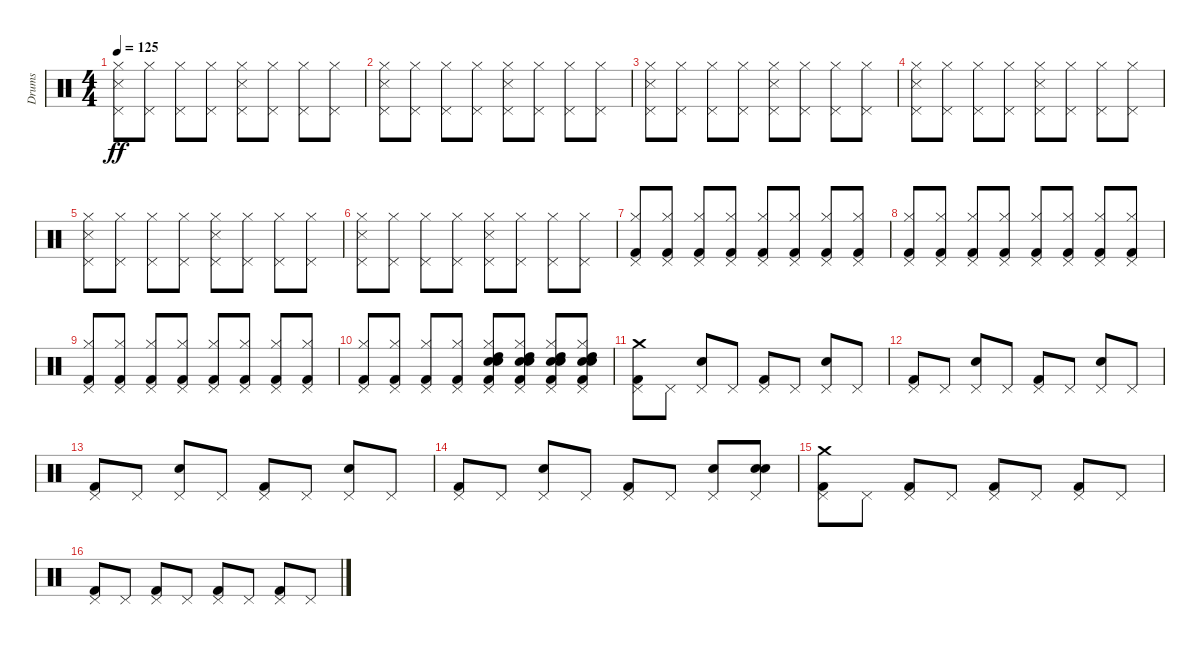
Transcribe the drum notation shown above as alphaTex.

\track ("Drums" "Drums") {instrument percussion}
\staff {score}
\articulation defaults
\ts (4 4)
\tempo 125
\clef neutral
\ks c
("Pedal Hi-Hat (hit)" "Snare (side stick) 3" "Hi-Hat (closed)").8{dy ff} ("Pedal Hi-Hat (hit)" "Hi-Hat (closed)").8 ("Pedal Hi-Hat (hit)" "Hi-Hat (closed)").8 ("Pedal Hi-Hat (hit)" "Hi-Hat (closed)").8 ("Pedal Hi-Hat (hit)" "Snare (side stick) 3" "Hi-Hat (closed)").8 ("Pedal Hi-Hat (hit)" "Hi-Hat (closed)").8 ("Pedal Hi-Hat (hit)" "Hi-Hat (closed)").8 ("Pedal Hi-Hat (hit)" "Hi-Hat (closed)").8 |
("Pedal Hi-Hat (hit)" "Snare (side stick) 3" "Hi-Hat (closed)").8 ("Pedal Hi-Hat (hit)" "Hi-Hat (closed)").8 ("Pedal Hi-Hat (hit)" "Hi-Hat (closed)").8 ("Pedal Hi-Hat (hit)" "Hi-Hat (closed)").8 ("Pedal Hi-Hat (hit)" "Snare (side stick) 3" "Hi-Hat (closed)").8 ("Pedal Hi-Hat (hit)" "Hi-Hat (closed)").8 ("Pedal Hi-Hat (hit)" "Hi-Hat (closed)").8 ("Pedal Hi-Hat (hit)" "Hi-Hat (closed)").8 |
("Pedal Hi-Hat (hit)" "Snare (side stick) 3" "Hi-Hat (closed)").8 ("Pedal Hi-Hat (hit)" "Hi-Hat (closed)").8 ("Pedal Hi-Hat (hit)" "Hi-Hat (closed)").8 ("Pedal Hi-Hat (hit)" "Hi-Hat (closed)").8 ("Pedal Hi-Hat (hit)" "Snare (side stick) 3" "Hi-Hat (closed)").8 ("Pedal Hi-Hat (hit)" "Hi-Hat (closed)").8 ("Pedal Hi-Hat (hit)" "Hi-Hat (closed)").8 ("Pedal Hi-Hat (hit)" "Hi-Hat (closed)").8 |
("Pedal Hi-Hat (hit)" "Snare (side stick) 3" "Hi-Hat (closed)").8 ("Pedal Hi-Hat (hit)" "Hi-Hat (closed)").8 ("Pedal Hi-Hat (hit)" "Hi-Hat (closed)").8 ("Pedal Hi-Hat (hit)" "Hi-Hat (closed)").8 ("Pedal Hi-Hat (hit)" "Snare (side stick) 3" "Hi-Hat (closed)").8 ("Pedal Hi-Hat (hit)" "Hi-Hat (closed)").8 ("Pedal Hi-Hat (hit)" "Hi-Hat (closed)").8 ("Pedal Hi-Hat (hit)" "Hi-Hat (closed)").8 |
("Pedal Hi-Hat (hit)" "Snare (side stick) 3" "Hi-Hat (closed)").8 ("Pedal Hi-Hat (hit)" "Hi-Hat (closed)").8 ("Pedal Hi-Hat (hit)" "Hi-Hat (closed)").8 ("Pedal Hi-Hat (hit)" "Hi-Hat (closed)").8 ("Pedal Hi-Hat (hit)" "Snare (side stick) 3" "Hi-Hat (closed)").8 ("Pedal Hi-Hat (hit)" "Hi-Hat (closed)").8 ("Pedal Hi-Hat (hit)" "Hi-Hat (closed)").8 ("Pedal Hi-Hat (hit)" "Hi-Hat (closed)").8 |
("Pedal Hi-Hat (hit)" "Snare (side stick) 3" "Hi-Hat (closed)").8 ("Pedal Hi-Hat (hit)" "Hi-Hat (closed)").8 ("Pedal Hi-Hat (hit)" "Hi-Hat (closed)").8 ("Pedal Hi-Hat (hit)" "Hi-Hat (closed)").8 ("Pedal Hi-Hat (hit)" "Snare (side stick) 3" "Hi-Hat (closed)").8 ("Pedal Hi-Hat (hit)" "Hi-Hat (closed)").8 ("Pedal Hi-Hat (hit)" "Hi-Hat (closed)").8 ("Pedal Hi-Hat (hit)" "Hi-Hat (closed)").8 |
("Pedal Hi-Hat (hit)" "Kick (hit) 2" "Hi-Hat (closed)").8 ("Pedal Hi-Hat (hit)" "Kick (hit) 2" "Hi-Hat (closed)").8 ("Pedal Hi-Hat (hit)" "Kick (hit) 2" "Hi-Hat (closed)").8 ("Pedal Hi-Hat (hit)" "Kick (hit) 2" "Hi-Hat (closed)").8 ("Pedal Hi-Hat (hit)" "Kick (hit) 2" "Hi-Hat (closed)").8 ("Pedal Hi-Hat (hit)" "Kick (hit) 2" "Hi-Hat (closed)").8 ("Pedal Hi-Hat (hit)" "Kick (hit) 2" "Hi-Hat (closed)").8 ("Pedal Hi-Hat (hit)" "Kick (hit) 2" "Hi-Hat (closed)").8 |
("Pedal Hi-Hat (hit)" "Kick (hit) 2" "Hi-Hat (closed)").8 ("Pedal Hi-Hat (hit)" "Kick (hit) 2" "Hi-Hat (closed)").8 ("Pedal Hi-Hat (hit)" "Kick (hit) 2" "Hi-Hat (closed)").8 ("Pedal Hi-Hat (hit)" "Kick (hit) 2" "Hi-Hat (closed)").8 ("Pedal Hi-Hat (hit)" "Kick (hit) 2" "Hi-Hat (closed)").8 ("Pedal Hi-Hat (hit)" "Kick (hit) 2" "Hi-Hat (closed)").8 ("Pedal Hi-Hat (hit)" "Kick (hit) 2" "Hi-Hat (closed)").8 ("Pedal Hi-Hat (hit)" "Kick (hit) 2" "Hi-Hat (closed)").8 |
("Pedal Hi-Hat (hit)" "Kick (hit) 2" "Hi-Hat (closed)").8 ("Pedal Hi-Hat (hit)" "Kick (hit) 2" "Hi-Hat (closed)").8 ("Pedal Hi-Hat (hit)" "Kick (hit) 2" "Hi-Hat (closed)").8 ("Pedal Hi-Hat (hit)" "Kick (hit) 2" "Hi-Hat (closed)").8 ("Pedal Hi-Hat (hit)" "Kick (hit) 2" "Hi-Hat (closed)").8 ("Pedal Hi-Hat (hit)" "Kick (hit) 2" "Hi-Hat (closed)").8 ("Pedal Hi-Hat (hit)" "Kick (hit) 2" "Hi-Hat (closed)").8 ("Pedal Hi-Hat (hit)" "Kick (hit) 2" "Hi-Hat (closed)").8 |
("Pedal Hi-Hat (hit)" "Kick (hit) 2" "Hi-Hat (closed)").8 ("Pedal Hi-Hat (hit)" "Kick (hit) 2" "Hi-Hat (closed)").8 ("Pedal Hi-Hat (hit)" "Kick (hit) 2" "Hi-Hat (closed)").8 ("Pedal Hi-Hat (hit)" "Kick (hit) 2" "Hi-Hat (closed)").8 ("Pedal Hi-Hat (hit)" "Kick (hit) 2" "Electric Snare (hit)" "High Tom (hit)" "Hi-Hat (closed)" "Electric Snare (hit)").8 ("Pedal Hi-Hat (hit)" "Kick (hit) 2" "Electric Snare (hit)" "High Tom (hit)" "Hi-Hat (closed)" "Electric Snare (hit)").8 ("Pedal Hi-Hat (hit)" "Kick (hit) 2" "Electric Snare (hit)" "High Tom (hit)" "Hi-Hat (closed)" "Electric Snare (hit)").8 ("Pedal Hi-Hat (hit)" "Kick (hit) 2" "Electric Snare (hit)" "High Tom (hit)" "Hi-Hat (closed)" "Electric Snare (hit)").8 |
("Pedal Hi-Hat (hit)" "Kick (hit) 2" "Crash medium (hit)").8 "Pedal Hi-Hat (hit)".8 ("Pedal Hi-Hat (hit)" "Electric Snare (hit)").8 "Pedal Hi-Hat (hit)".8 ("Pedal Hi-Hat (hit)" "Kick (hit) 2").8 "Pedal Hi-Hat (hit)".8 ("Pedal Hi-Hat (hit)" "Electric Snare (hit)").8 "Pedal Hi-Hat (hit)".8 |
("Pedal Hi-Hat (hit)" "Kick (hit) 2").8 "Pedal Hi-Hat (hit)".8 ("Pedal Hi-Hat (hit)" "Electric Snare (hit)").8 "Pedal Hi-Hat (hit)".8 ("Pedal Hi-Hat (hit)" "Kick (hit) 2").8 "Pedal Hi-Hat (hit)".8 ("Pedal Hi-Hat (hit)" "Electric Snare (hit)").8 "Pedal Hi-Hat (hit)".8 |
("Pedal Hi-Hat (hit)" "Kick (hit) 2").8 "Pedal Hi-Hat (hit)".8 ("Pedal Hi-Hat (hit)" "Electric Snare (hit)").8 "Pedal Hi-Hat (hit)".8 ("Pedal Hi-Hat (hit)" "Kick (hit) 2").8 "Pedal Hi-Hat (hit)".8 ("Pedal Hi-Hat (hit)" "Electric Snare (hit)").8 "Pedal Hi-Hat (hit)".8 |
("Pedal Hi-Hat (hit)" "Kick (hit) 2").8 "Pedal Hi-Hat (hit)".8 ("Pedal Hi-Hat (hit)" "Electric Snare (hit)").8 "Pedal Hi-Hat (hit)".8 ("Pedal Hi-Hat (hit)" "Kick (hit) 2").8 "Pedal Hi-Hat (hit)".8 ("Pedal Hi-Hat (hit)" "Electric Snare (hit)").8 ("Pedal Hi-Hat (hit)" "Electric Snare (hit)" "Electric Snare (hit)").8 |
("Pedal Hi-Hat (hit)" "Kick (hit) 2" "Crash medium (hit)").8 "Pedal Hi-Hat (hit)".8 ("Pedal Hi-Hat (hit)" "Kick (hit) 2").8 "Pedal Hi-Hat (hit)".8 ("Pedal Hi-Hat (hit)" "Kick (hit) 2").8 "Pedal Hi-Hat (hit)".8 ("Pedal Hi-Hat (hit)" "Kick (hit) 2").8 "Pedal Hi-Hat (hit)".8 |
("Pedal Hi-Hat (hit)" "Kick (hit) 2").8 "Pedal Hi-Hat (hit)".8 ("Pedal Hi-Hat (hit)" "Kick (hit) 2").8 "Pedal Hi-Hat (hit)".8 ("Pedal Hi-Hat (hit)" "Kick (hit) 2").8 "Pedal Hi-Hat (hit)".8 ("Pedal Hi-Hat (hit)" "Kick (hit) 2").8 "Pedal Hi-Hat (hit)".8
